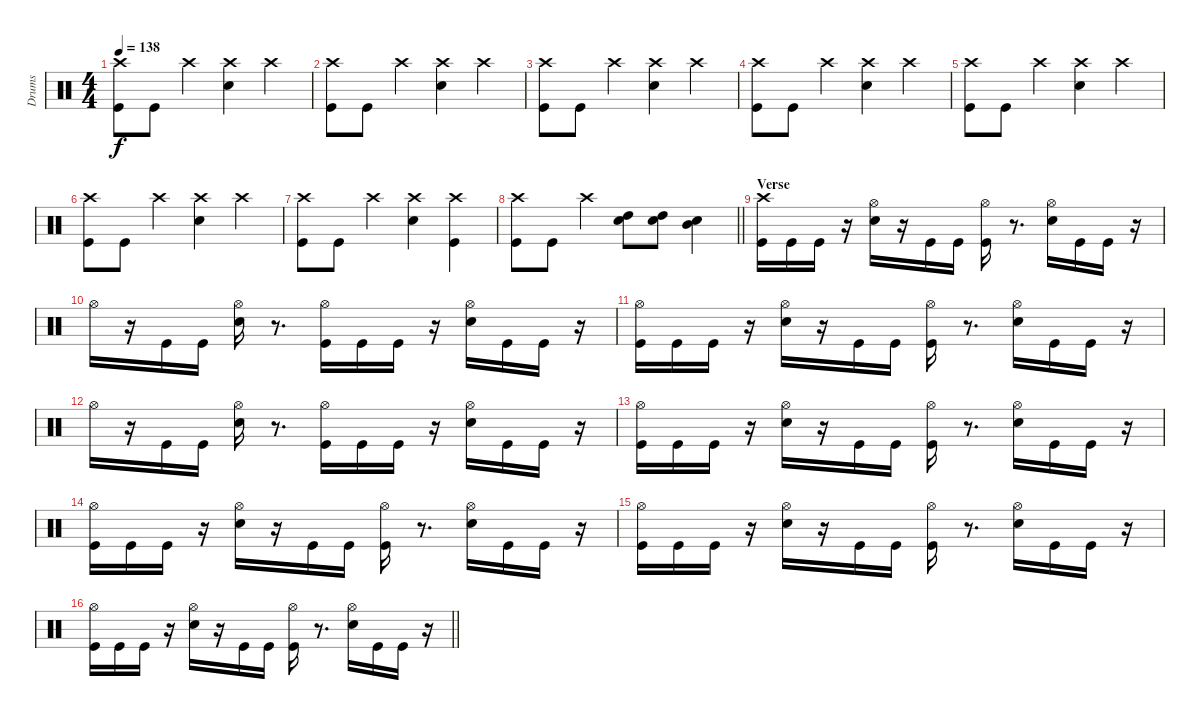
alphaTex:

\track ("Drums" "Drums") {instrument percussion}
\staff {score}
\articulation defaults
\ts (4 4)
\tempo 138
\clef neutral
\ks c
("Crash high (hit)" "Kick (hit)").8{dy f} "Kick (hit)".8 "Crash high (hit)".4 ("Crash high (hit)" "Electric Snare (hit)").4 "Crash high (hit)".4 |
("Crash high (hit)" "Kick (hit)").8 "Kick (hit)".8 "Crash high (hit)".4 ("Crash high (hit)" "Electric Snare (hit)").4 "Crash high (hit)".4 |
("Crash high (hit)" "Kick (hit)").8 "Kick (hit)".8 "Crash high (hit)".4 ("Crash high (hit)" "Electric Snare (hit)").4 "Crash high (hit)".4 |
("Crash high (hit)" "Kick (hit)").8 "Kick (hit)".8 "Crash high (hit)".4 ("Crash high (hit)" "Electric Snare (hit)").4 "Crash high (hit)".4 |
("Crash high (hit)" "Kick (hit)").8 "Kick (hit)".8 "Crash high (hit)".4 ("Crash high (hit)" "Electric Snare (hit)").4 "Crash high (hit)".4 |
("Crash high (hit)" "Kick (hit)").8 "Kick (hit)".8 "Crash high (hit)".4 ("Crash high (hit)" "Electric Snare (hit)").4 "Crash high (hit)".4 |
("Crash high (hit)" "Kick (hit)").8 "Kick (hit)".8 "Crash high (hit)".4 ("Crash high (hit)" "Electric Snare (hit)").4 ("Crash high (hit)" "Kick (hit)").4 |
\barLineRight lightlight
("Crash high (hit)" "Kick (hit)").8 "Kick (hit)".8 "Crash high (hit)".4 ("High Tom (hit)" "Electric Snare (hit)").8 ("High Tom (hit)" "Electric Snare (hit)").8 ("Mid Tom (hit)" "Electric Snare (hit)").4 |
\section ("" "Verse ")
("Crash high (hit)" "Kick (hit)").16 "Kick (hit)".16 "Kick (hit)".16 r.16 ("Hi-Hat (open)" "Electric Snare (hit)").16 r.16 "Kick (hit)".16 "Kick (hit)".16 ("Hi-Hat (open)" "Kick (hit)").16 r.8{d} ("Hi-Hat (open)" "Electric Snare (hit)").16 "Kick (hit)".16 "Kick (hit)".16 r.16 |
"Hi-Hat (open)".16 r.16 "Kick (hit)".16 "Kick (hit)".16 ("Hi-Hat (open)" "Electric Snare (hit)").16 r.8{d} ("Hi-Hat (open)" "Kick (hit)").16 "Kick (hit)".16 "Kick (hit)".16 r.16 ("Hi-Hat (open)" "Electric Snare (hit)").16 "Kick (hit)".16 "Kick (hit)".16 r.16 |
("Hi-Hat (open)" "Kick (hit)").16 "Kick (hit)".16 "Kick (hit)".16 r.16 ("Hi-Hat (open)" "Electric Snare (hit)").16 r.16 "Kick (hit)".16 "Kick (hit)".16 ("Hi-Hat (open)" "Kick (hit)").16 r.8{d} ("Hi-Hat (open)" "Electric Snare (hit)").16 "Kick (hit)".16 "Kick (hit)".16 r.16 |
"Hi-Hat (open)".16 r.16 "Kick (hit)".16 "Kick (hit)".16 ("Hi-Hat (open)" "Electric Snare (hit)").16 r.8{d} ("Hi-Hat (open)" "Kick (hit)").16 "Kick (hit)".16 "Kick (hit)".16 r.16 ("Hi-Hat (open)" "Electric Snare (hit)").16 "Kick (hit)".16 "Kick (hit)".16 r.16 |
("Hi-Hat (open)" "Kick (hit)").16 "Kick (hit)".16 "Kick (hit)".16 r.16 ("Hi-Hat (open)" "Electric Snare (hit)").16 r.16 "Kick (hit)".16 "Kick (hit)".16 ("Hi-Hat (open)" "Kick (hit)").16 r.8{d} ("Hi-Hat (open)" "Electric Snare (hit)").16 "Kick (hit)".16 "Kick (hit)".16 r.16 |
("Hi-Hat (open)" "Kick (hit)").16 "Kick (hit)".16 "Kick (hit)".16 r.16 ("Hi-Hat (open)" "Electric Snare (hit)").16 r.16 "Kick (hit)".16 "Kick (hit)".16 ("Hi-Hat (open)" "Kick (hit)").16 r.8{d} ("Hi-Hat (open)" "Electric Snare (hit)").16 "Kick (hit)".16 "Kick (hit)".16 r.16 |
("Hi-Hat (open)" "Kick (hit)").16 "Kick (hit)".16 "Kick (hit)".16 r.16 ("Hi-Hat (open)" "Electric Snare (hit)").16 r.16 "Kick (hit)".16 "Kick (hit)".16 ("Hi-Hat (open)" "Kick (hit)").16 r.8{d} ("Hi-Hat (open)" "Electric Snare (hit)").16 "Kick (hit)".16 "Kick (hit)".16 r.16 |
\barLineRight lightlight
("Hi-Hat (open)" "Kick (hit)").16 "Kick (hit)".16 "Kick (hit)".16 r.16 ("Hi-Hat (open)" "Electric Snare (hit)").16 r.16 "Kick (hit)".16 "Kick (hit)".16 ("Hi-Hat (open)" "Kick (hit)").16 r.8{d} ("Hi-Hat (open)" "Electric Snare (hit)").16 "Kick (hit)".16 "Kick (hit)".16 r.16
